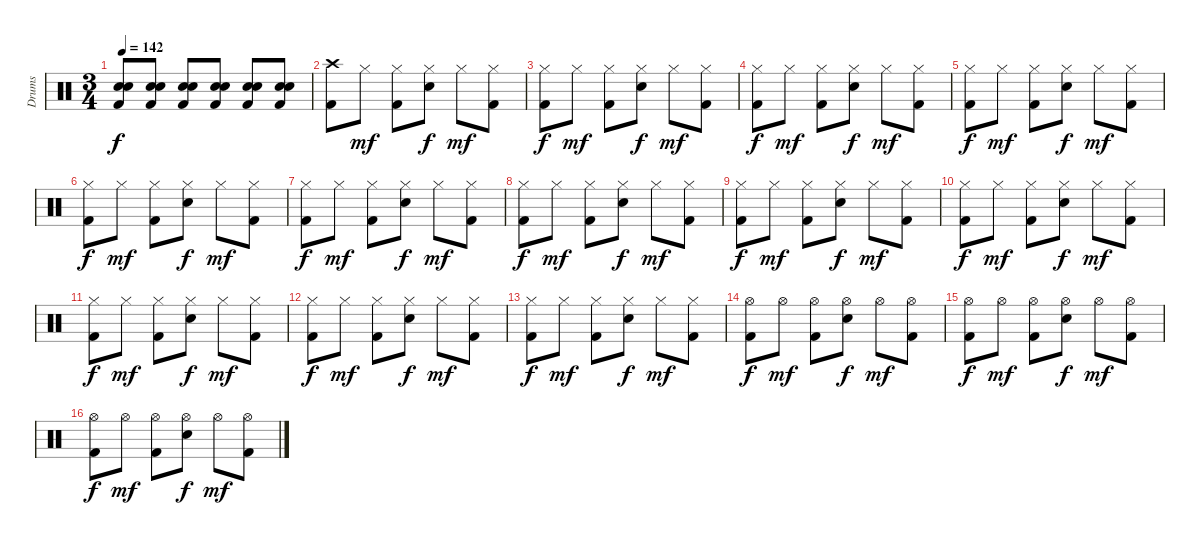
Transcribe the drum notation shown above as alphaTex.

\track ("Drums" "Drums") {instrument percussion}
\staff {score}
\articulation defaults
\ts (3 4)
\tempo 142
\clef neutral
\ks c
("Electric Snare (hit)" "Snare (hit) 2" "Kick (hit) 2").8{dy f} ("Electric Snare (hit)" "Snare (hit) 2" "Kick (hit) 2").8 ("Electric Snare (hit)" "Snare (hit) 2" "Kick (hit) 2").8 ("Electric Snare (hit)" "Snare (hit) 2" "Kick (hit) 2").8 ("Electric Snare (hit)" "Snare (hit) 2" "Kick (hit) 2").8 ("Electric Snare (hit)" "Snare (hit) 2" "Kick (hit) 2").8 |
("Crash high (hit)" "Kick (hit) 2").8 "Hi-Hat (closed)".8{dy mf} ("Hi-Hat (closed)" "Kick (hit) 2").8 ("Hi-Hat (closed)" "Electric Snare (hit)").8{dy f} "Hi-Hat (closed)".8{dy mf} ("Hi-Hat (closed)" "Kick (hit) 2").8 |
("Hi-Hat (closed)" "Kick (hit) 2").8{dy f} "Hi-Hat (closed)".8{dy mf} ("Hi-Hat (closed)" "Kick (hit) 2").8 ("Hi-Hat (closed)" "Electric Snare (hit)").8{dy f} "Hi-Hat (closed)".8{dy mf} ("Hi-Hat (closed)" "Kick (hit) 2").8 |
("Hi-Hat (closed)" "Kick (hit) 2").8{dy f} "Hi-Hat (closed)".8{dy mf} ("Hi-Hat (closed)" "Kick (hit) 2").8 ("Hi-Hat (closed)" "Electric Snare (hit)").8{dy f} "Hi-Hat (closed)".8{dy mf} ("Hi-Hat (closed)" "Kick (hit) 2").8 |
("Hi-Hat (closed)" "Kick (hit) 2").8{dy f} "Hi-Hat (closed)".8{dy mf} ("Hi-Hat (closed)" "Kick (hit) 2").8 ("Hi-Hat (closed)" "Electric Snare (hit)").8{dy f} "Hi-Hat (closed)".8{dy mf} ("Hi-Hat (closed)" "Kick (hit) 2").8 |
("Hi-Hat (closed)" "Kick (hit) 2").8{dy f} "Hi-Hat (closed)".8{dy mf} ("Hi-Hat (closed)" "Kick (hit) 2").8 ("Hi-Hat (closed)" "Electric Snare (hit)").8{dy f} "Hi-Hat (closed)".8{dy mf} ("Hi-Hat (closed)" "Kick (hit) 2").8 |
("Hi-Hat (closed)" "Kick (hit) 2").8{dy f} "Hi-Hat (closed)".8{dy mf} ("Hi-Hat (closed)" "Kick (hit) 2").8 ("Hi-Hat (closed)" "Electric Snare (hit)").8{dy f} "Hi-Hat (closed)".8{dy mf} ("Hi-Hat (closed)" "Kick (hit) 2").8 |
("Hi-Hat (closed)" "Kick (hit) 2").8{dy f} "Hi-Hat (closed)".8{dy mf} ("Hi-Hat (closed)" "Kick (hit) 2").8 ("Hi-Hat (closed)" "Electric Snare (hit)").8{dy f} "Hi-Hat (closed)".8{dy mf} ("Hi-Hat (closed)" "Kick (hit) 2").8 |
("Hi-Hat (closed)" "Kick (hit) 2").8{dy f} "Hi-Hat (closed)".8{dy mf} ("Hi-Hat (closed)" "Kick (hit) 2").8 ("Hi-Hat (closed)" "Electric Snare (hit)").8{dy f} "Hi-Hat (closed)".8{dy mf} ("Hi-Hat (closed)" "Kick (hit) 2").8 |
("Hi-Hat (closed)" "Kick (hit) 2").8{dy f} "Hi-Hat (closed)".8{dy mf} ("Hi-Hat (closed)" "Kick (hit) 2").8 ("Hi-Hat (closed)" "Electric Snare (hit)").8{dy f} "Hi-Hat (closed)".8{dy mf} ("Hi-Hat (closed)" "Kick (hit) 2").8 |
("Hi-Hat (closed)" "Kick (hit) 2").8{dy f} "Hi-Hat (closed)".8{dy mf} ("Hi-Hat (closed)" "Kick (hit) 2").8 ("Hi-Hat (closed)" "Electric Snare (hit)").8{dy f} "Hi-Hat (closed)".8{dy mf} ("Hi-Hat (closed)" "Kick (hit) 2").8 |
("Hi-Hat (closed)" "Kick (hit) 2").8{dy f} "Hi-Hat (closed)".8{dy mf} ("Hi-Hat (closed)" "Kick (hit) 2").8 ("Hi-Hat (closed)" "Electric Snare (hit)").8{dy f} "Hi-Hat (closed)".8{dy mf} ("Hi-Hat (closed)" "Kick (hit) 2").8 |
("Hi-Hat (closed)" "Kick (hit) 2").8{dy f} "Hi-Hat (closed)".8{dy mf} ("Hi-Hat (closed)" "Kick (hit) 2").8 ("Hi-Hat (closed)" "Electric Snare (hit)").8{dy f} "Hi-Hat (closed)".8{dy mf} ("Hi-Hat (closed)" "Kick (hit) 2").8 |
("Hi-Hat (open)" "Kick (hit) 2").8{dy f} "Hi-Hat (open)".8{dy mf} ("Hi-Hat (open)" "Kick (hit) 2").8 ("Hi-Hat (open)" "Electric Snare (hit)").8{dy f} "Hi-Hat (open)".8{dy mf} ("Hi-Hat (open)" "Kick (hit) 2").8 |
("Hi-Hat (open)" "Kick (hit) 2").8{dy f} "Hi-Hat (open)".8{dy mf} ("Hi-Hat (open)" "Kick (hit) 2").8 ("Hi-Hat (open)" "Electric Snare (hit)").8{dy f} "Hi-Hat (open)".8{dy mf} ("Hi-Hat (open)" "Kick (hit) 2").8 |
("Hi-Hat (open)" "Kick (hit) 2").8{dy f} "Hi-Hat (open)".8{dy mf} ("Hi-Hat (open)" "Kick (hit) 2").8 ("Hi-Hat (open)" "Electric Snare (hit)").8{dy f} "Hi-Hat (open)".8{dy mf} ("Hi-Hat (open)" "Kick (hit) 2").8
